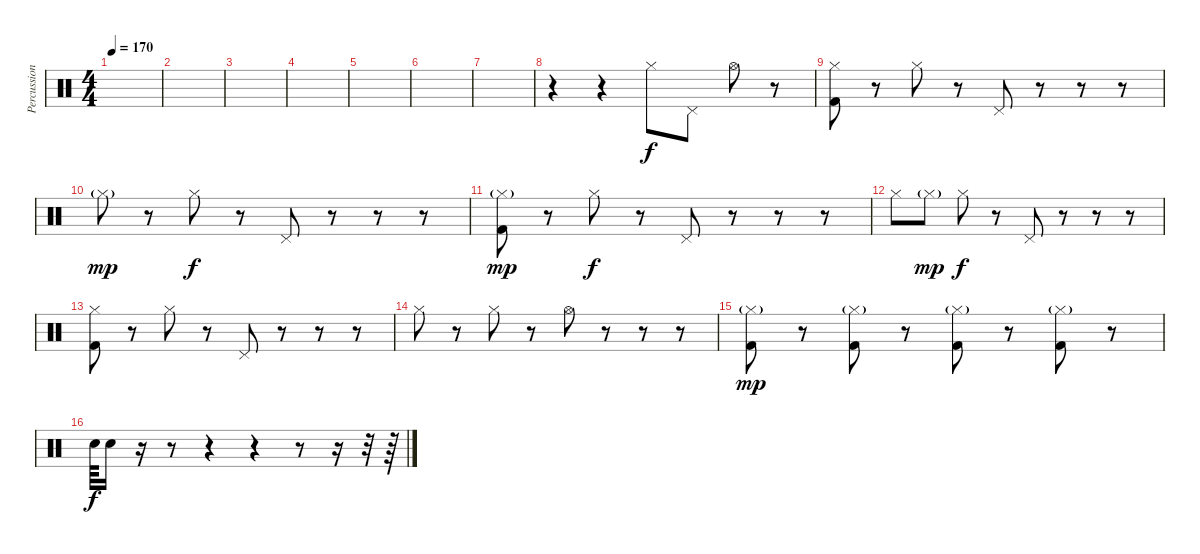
\track ("Percussion" "Percussion") {instrument percussion}
\staff {score}
\articulation defaults
\ts (4 4)
\tempo 170
\clef neutral
\ks c
|
|
|
|
|
|
|
r.4 r.4 "Hi-Hat (closed)".8 "Pedal Hi-Hat (hit)".8 "Hi-Hat (open)".8 r.8 |
("Hi-Hat (closed)" "Kick (hit) 2").8 r.8 "Hi-Hat (closed)".8 r.8 "Pedal Hi-Hat (hit)".8 r.8 r.8 r.8 |
"Hi-Hat (closed)"{g}.8{dy mp} r.8 "Hi-Hat (closed)".8{dy f} r.8 "Pedal Hi-Hat (hit)".8 r.8 r.8 r.8 |
("Hi-Hat (closed)"{g} "Kick (hit) 2").8{dy mp} r.8 "Hi-Hat (closed)".8{dy f} r.8 "Pedal Hi-Hat (hit)".8 r.8 r.8 r.8 |
"Hi-Hat (closed)".8 "Hi-Hat (closed)"{g}.8{dy mp} "Hi-Hat (closed)".8{dy f} r.8 "Pedal Hi-Hat (hit)".8 r.8 r.8 r.8 |
("Hi-Hat (closed)" "Kick (hit) 2").8 r.8 "Hi-Hat (closed)".8 r.8 "Pedal Hi-Hat (hit)".8 r.8 r.8 r.8 |
"Hi-Hat (closed)".8 r.8 "Hi-Hat (closed)".8 r.8 "Hi-Hat (open)".8 r.8 r.8 r.8 |
("Hi-Hat (closed)"{g} "Kick (hit) 2").8{dy mp} r.8 ("Hi-Hat (closed)"{g} "Kick (hit) 2").8 r.8 ("Hi-Hat (closed)"{g} "Kick (hit) 2").8 r.8 ("Hi-Hat (closed)"{g} "Kick (hit) 2").8 r.8 |
"Electric Snare (hit)".64{dy f} "Electric Snare (hit)".16 r.16 r.8 r.4 r.4 r.8 r.16 r.32 r.64
